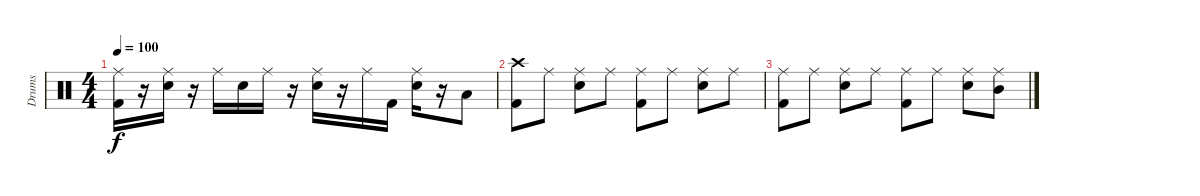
\track ("Drums" "Drums") {instrument percussion}
\staff {score}
\articulation defaults
\ts (4 4)
\tempo 100
\clef neutral
\ks c
("Ride (middle)" "Kick (hit) 2").16{dy f} r.16 ("Ride (middle)" "Snare (hit) 2").16 r.16 "Ride (middle)".16 "Snare (hit) 2".16 "Ride (middle)".16 r.16 ("Ride (middle)" "Snare (hit) 2").16 r.16 "Ride (middle)".16 "Kick (hit) 2".16 ("Ride (middle)" "Snare (hit) 2").16 r.16 "Low Tom (hit)".8 |
("Crash high (hit)" "Kick (hit) 2").8{volume 0} "Ride (middle)".8 ("Ride (middle)" "Snare (hit) 2").8 "Ride (middle)".8 ("Ride (middle)" "Kick (hit) 2").8 "Ride (middle)".8 ("Ride (middle)" "Snare (hit) 2").8 "Ride (middle)".8 |
("Ride (middle)" "Kick (hit) 2").8 "Ride (middle)".8 ("Ride (middle)" "Snare (hit) 2").8 "Ride (middle)".8 ("Ride (middle)" "Kick (hit) 2").8 "Ride (middle)".8 ("Ride (middle)" "Snare (hit) 2").8 ("Ride (middle)" "Mid Tom (hit)").8
